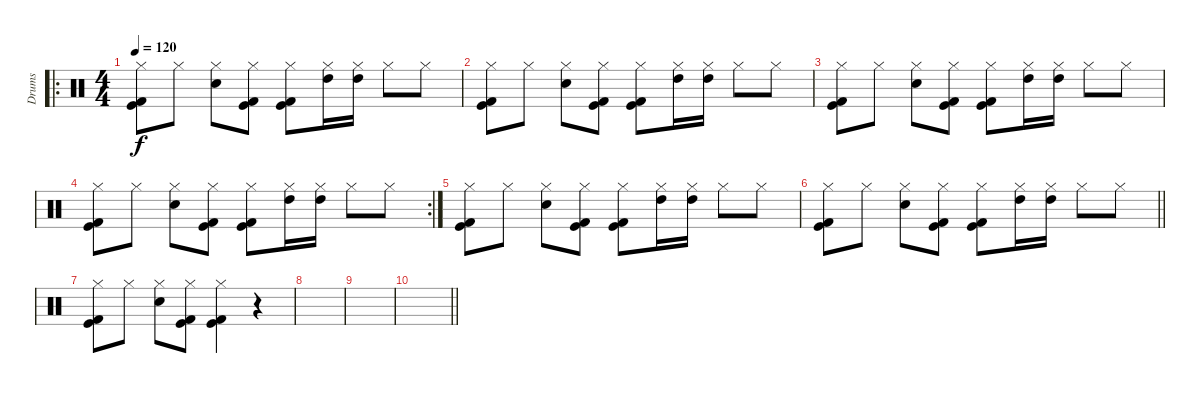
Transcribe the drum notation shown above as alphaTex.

\track ("Drums" "Drums") {instrument percussion}
\staff {score}
\articulation defaults
\ro
\ts (4 4)
\tempo 120
\clef neutral
\ks c
("Hi-Hat (closed)" "Kick (hit) 2" "Kick (hit)").8{dy f} "Hi-Hat (closed)".8 ("Hi-Hat (closed)" "Snare (hit) 2").8 ("Hi-Hat (closed)" "Kick (hit) 2" "Kick (hit)").8 ("Hi-Hat (closed)" "Kick (hit) 2" "Kick (hit)").8 ("Hi-Hat (closed)" "High Tom (hit)").16 ("Hi-Hat (closed)" "High Tom (hit)").16 "Hi-Hat (closed)".8 "Hi-Hat (closed)".8 |
("Hi-Hat (closed)" "Kick (hit) 2" "Kick (hit)").8 "Hi-Hat (closed)".8 ("Hi-Hat (closed)" "Snare (hit) 2").8 ("Hi-Hat (closed)" "Kick (hit) 2" "Kick (hit)").8 ("Hi-Hat (closed)" "Kick (hit) 2" "Kick (hit)").8 ("Hi-Hat (closed)" "High Tom (hit)").16 ("Hi-Hat (closed)" "High Tom (hit)").16 "Hi-Hat (closed)".8 "Hi-Hat (closed)".8 |
("Hi-Hat (closed)" "Kick (hit) 2" "Kick (hit)").8 "Hi-Hat (closed)".8 ("Hi-Hat (closed)" "Snare (hit) 2").8 ("Hi-Hat (closed)" "Kick (hit) 2" "Kick (hit)").8 ("Hi-Hat (closed)" "Kick (hit) 2" "Kick (hit)").8 ("Hi-Hat (closed)" "High Tom (hit)").16 ("Hi-Hat (closed)" "High Tom (hit)").16 "Hi-Hat (closed)".8 "Hi-Hat (closed)".8 |
\rc 2
("Hi-Hat (closed)" "Kick (hit) 2" "Kick (hit)").8 "Hi-Hat (closed)".8 ("Hi-Hat (closed)" "Snare (hit) 2").8 ("Hi-Hat (closed)" "Kick (hit) 2" "Kick (hit)").8 ("Hi-Hat (closed)" "Kick (hit) 2" "Kick (hit)").8 ("Hi-Hat (closed)" "High Tom (hit)").16 ("Hi-Hat (closed)" "High Tom (hit)").16 "Hi-Hat (closed)".8 "Hi-Hat (closed)".8 |
("Hi-Hat (closed)" "Kick (hit) 2" "Kick (hit)").8 "Hi-Hat (closed)".8 ("Hi-Hat (closed)" "Snare (hit) 2").8 ("Hi-Hat (closed)" "Kick (hit) 2" "Kick (hit)").8 ("Hi-Hat (closed)" "Kick (hit) 2" "Kick (hit)").8 ("Hi-Hat (closed)" "High Tom (hit)").16 ("Hi-Hat (closed)" "High Tom (hit)").16 "Hi-Hat (closed)".8 "Hi-Hat (closed)".8 |
\barLineRight lightlight
("Hi-Hat (closed)" "Kick (hit) 2" "Kick (hit)").8 "Hi-Hat (closed)".8 ("Hi-Hat (closed)" "Snare (hit) 2").8 ("Hi-Hat (closed)" "Kick (hit) 2" "Kick (hit)").8 ("Hi-Hat (closed)" "Kick (hit) 2" "Kick (hit)").8 ("Hi-Hat (closed)" "High Tom (hit)").16 ("Hi-Hat (closed)" "High Tom (hit)").16 "Hi-Hat (closed)".8 "Hi-Hat (closed)".8 |
("Hi-Hat (closed)" "Kick (hit) 2" "Kick (hit)").8 "Hi-Hat (closed)".8 ("Hi-Hat (closed)" "Snare (hit) 2").8 ("Hi-Hat (closed)" "Kick (hit) 2" "Kick (hit)").8 ("Hi-Hat (closed)" "Kick (hit) 2" "Kick (hit)").4 r.4 |
|
|
\barLineRight lightlight
